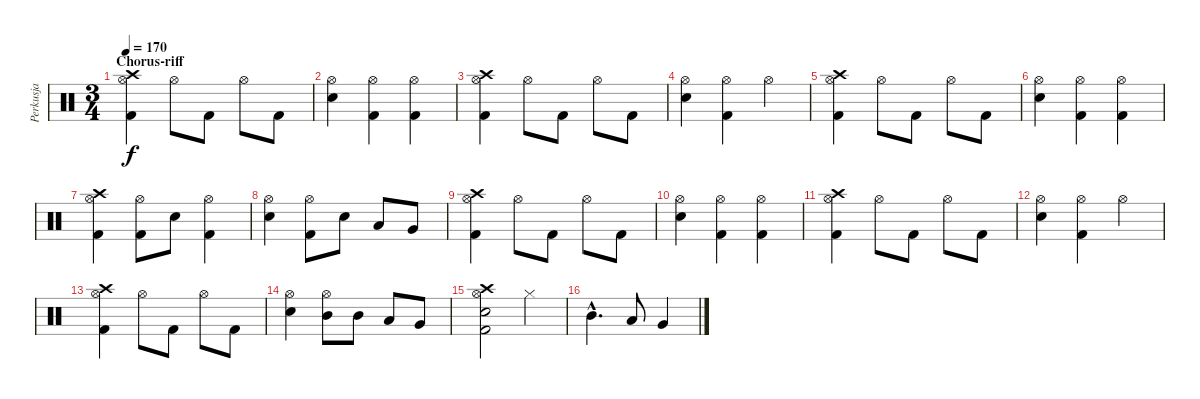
\track ("Perkusja" "Perkusja") {instrument percussion}
\staff {score}
\articulation defaults
\ts (3 4)
\section ("" "Chorus-riff")
\tempo 170
\clef neutral
\ks c
("Hi-Hat (open)" "Kick (hit) 2" "Crash high (hit)").4{dy f} "Hi-Hat (open)".8 "Kick (hit) 2".8 "Hi-Hat (open)".8 "Kick (hit) 2".8 |
("Hi-Hat (open)" "Snare (hit) 2").4 ("Hi-Hat (open)" "Kick (hit) 2").4 ("Hi-Hat (open)" "Kick (hit) 2").4 |
("Hi-Hat (open)" "Kick (hit) 2" "Crash high (hit)").4 "Hi-Hat (open)".8 "Kick (hit) 2".8 "Hi-Hat (open)".8 "Kick (hit) 2".8 |
("Hi-Hat (open)" "Snare (hit) 2").4 ("Hi-Hat (open)" "Kick (hit) 2").4 "Hi-Hat (open)".4 |
("Hi-Hat (open)" "Kick (hit) 2" "Crash high (hit)").4 "Hi-Hat (open)".8 "Kick (hit) 2".8 "Hi-Hat (open)".8 "Kick (hit) 2".8 |
("Hi-Hat (open)" "Snare (hit) 2").4 ("Hi-Hat (open)" "Kick (hit) 2").4 ("Hi-Hat (open)" "Kick (hit) 2").4 |
("Hi-Hat (open)" "Kick (hit) 2" "Crash high (hit)").4 ("Hi-Hat (open)" "Kick (hit) 2").8 "Snare (hit) 2".8 ("Hi-Hat (open)" "Kick (hit) 2").4 |
("Hi-Hat (open)" "Snare (hit) 2").4 ("Hi-Hat (open)" "Kick (hit) 2").8 "Snare (hit) 2".8 "Low Tom (hit)".8 "Very Low Tom (hit)".8 |
("Hi-Hat (open)" "Kick (hit) 2" "Crash high (hit)").4 "Hi-Hat (open)".8 "Kick (hit) 2".8 "Hi-Hat (open)".8 "Kick (hit) 2".8 |
("Hi-Hat (open)" "Snare (hit) 2").4 ("Hi-Hat (open)" "Kick (hit) 2").4 ("Hi-Hat (open)" "Kick (hit) 2").4 |
("Hi-Hat (open)" "Kick (hit) 2" "Crash high (hit)").4 "Hi-Hat (open)".8 "Kick (hit) 2".8 "Hi-Hat (open)".8 "Kick (hit) 2".8 |
("Hi-Hat (open)" "Snare (hit) 2").4 ("Hi-Hat (open)" "Kick (hit) 2").4 "Hi-Hat (open)".4 |
("Hi-Hat (open)" "Kick (hit) 2" "Crash high (hit)").4 "Hi-Hat (open)".8 "Kick (hit) 2".8 "Hi-Hat (open)".8 "Kick (hit) 2".8 |
("Hi-Hat (open)" "Snare (hit) 2").4 ("Hi-Hat (open)" "Mid Tom (hit)").8 "Mid Tom (hit)".8 "Low Tom (hit)".8 "Very Low Tom (hit)".8 |
("Hi-Hat (open)" "Kick (hit) 2" "Crash high (hit)" "Snare (hit) 2").2 "Hi-Hat (closed)".4 |
"Mid Tom (hit)"{hac}.4{d} "Low Tom (hit)".8 "Very Low Tom (hit)".4
